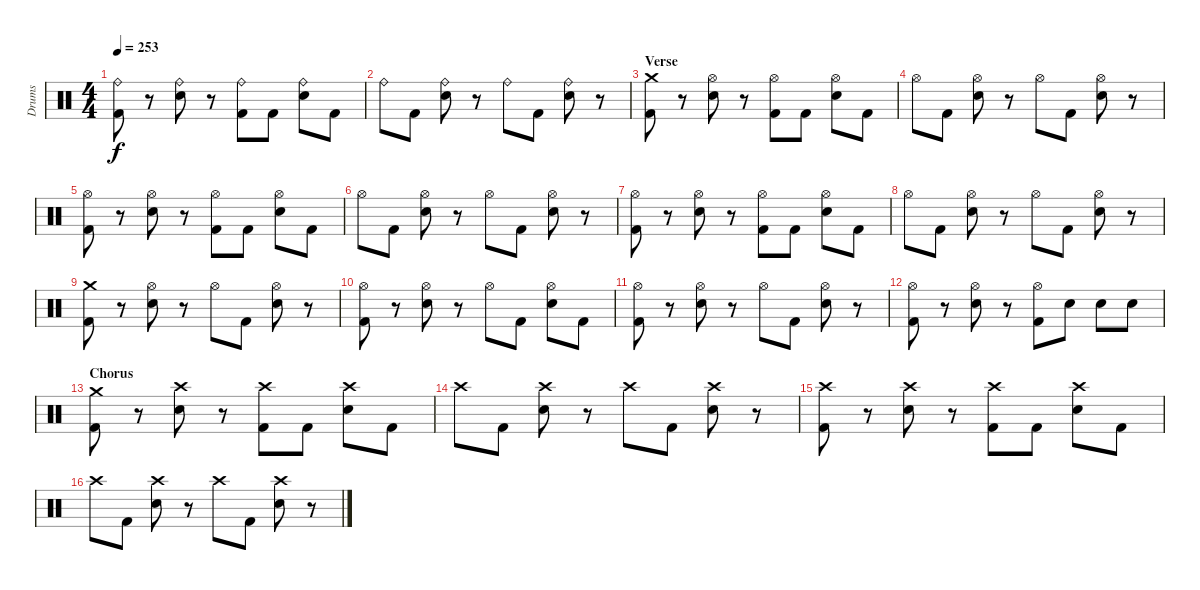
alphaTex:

\track ("Drums" "Drums") {instrument percussion}
\staff {score}
\articulation defaults
\ts (4 4)
\tempo 253
\clef neutral
\ks c
("Ride (bell)" "Kick (hit) 2").8{dy f} r.8 ("Ride (bell)" "Electric Snare (hit)").8 r.8 ("Ride (bell)" "Kick (hit) 2").8 "Kick (hit) 2".8 ("Ride (bell)" "Electric Snare (hit)").8 "Kick (hit) 2".8 |
"Ride (bell)".8 "Kick (hit) 2".8 ("Ride (bell)" "Electric Snare (hit)").8 r.8 "Ride (bell)".8 "Kick (hit) 2".8 ("Ride (bell)" "Electric Snare (hit)").8 r.8 |
\section ("" "Verse")
("Crash medium (hit)" "Kick (hit) 2").8 r.8 ("Hi-Hat (open)" "Electric Snare (hit)").8 r.8 ("Hi-Hat (open)" "Kick (hit) 2").8 "Kick (hit) 2".8 ("Hi-Hat (open)" "Electric Snare (hit)").8 "Kick (hit) 2".8 |
"Hi-Hat (open)".8 "Kick (hit) 2".8 ("Hi-Hat (open)" "Electric Snare (hit)").8 r.8 "Hi-Hat (open)".8 "Kick (hit) 2".8 ("Hi-Hat (open)" "Electric Snare (hit)").8 r.8 |
("Hi-Hat (open)" "Kick (hit) 2").8 r.8 ("Hi-Hat (open)" "Electric Snare (hit)").8 r.8 ("Hi-Hat (open)" "Kick (hit) 2").8 "Kick (hit) 2".8 ("Hi-Hat (open)" "Electric Snare (hit)").8 "Kick (hit) 2".8 |
"Hi-Hat (open)".8 "Kick (hit) 2".8 ("Hi-Hat (open)" "Electric Snare (hit)").8 r.8 "Hi-Hat (open)".8 "Kick (hit) 2".8 ("Hi-Hat (open)" "Electric Snare (hit)").8 r.8 |
("Hi-Hat (open)" "Kick (hit) 2").8 r.8 ("Hi-Hat (open)" "Electric Snare (hit)").8 r.8 ("Hi-Hat (open)" "Kick (hit) 2").8 "Kick (hit) 2".8 ("Hi-Hat (open)" "Electric Snare (hit)").8 "Kick (hit) 2".8 |
"Hi-Hat (open)".8 "Kick (hit) 2".8 ("Hi-Hat (open)" "Electric Snare (hit)").8 r.8 "Hi-Hat (open)".8 "Kick (hit) 2".8 ("Hi-Hat (open)" "Electric Snare (hit)").8 r.8 |
("Crash medium (hit)" "Kick (hit) 2").8 r.8 ("Hi-Hat (open)" "Electric Snare (hit)").8 r.8 "Hi-Hat (open)".8 "Kick (hit) 2".8 ("Hi-Hat (open)" "Electric Snare (hit)").8 r.8 |
("Hi-Hat (open)" "Kick (hit) 2").8 r.8 ("Hi-Hat (open)" "Electric Snare (hit)").8 r.8 "Hi-Hat (open)".8 "Kick (hit) 2".8 ("Hi-Hat (open)" "Electric Snare (hit)").8 "Kick (hit) 2".8 |
("Hi-Hat (open)" "Kick (hit) 2").8 r.8 ("Hi-Hat (open)" "Electric Snare (hit)").8 r.8 "Hi-Hat (open)".8 "Kick (hit) 2".8 ("Hi-Hat (open)" "Electric Snare (hit)").8 r.8 |
("Hi-Hat (open)" "Kick (hit) 2").8 r.8 ("Hi-Hat (open)" "Electric Snare (hit)").8 r.8 ("Hi-Hat (open)" "Kick (hit) 2").8 "Electric Snare (hit)".8 "Electric Snare (hit)".8 "Electric Snare (hit)".8 |
\section ("" "Chorus")
("Crash medium (hit)" "Kick (hit) 2").8 r.8 ("Crash high (hit)" "Electric Snare (hit)").8 r.8 ("Crash high (hit)" "Kick (hit) 2").8 "Kick (hit) 2".8 ("Crash high (hit)" "Electric Snare (hit)").8 "Kick (hit) 2".8 |
"Crash high (hit)".8 "Kick (hit) 2".8 ("Crash high (hit)" "Electric Snare (hit)").8 r.8 "Crash high (hit)".8 "Kick (hit) 2".8 ("Crash high (hit)" "Electric Snare (hit)").8 r.8 |
("Crash high (hit)" "Kick (hit) 2").8 r.8 ("Crash high (hit)" "Electric Snare (hit)").8 r.8 ("Crash high (hit)" "Kick (hit) 2").8 "Kick (hit) 2".8 ("Crash high (hit)" "Electric Snare (hit)").8 "Kick (hit) 2".8 |
"Crash high (hit)".8 "Kick (hit) 2".8 ("Crash high (hit)" "Electric Snare (hit)").8 r.8 "Crash high (hit)".8 "Kick (hit) 2".8 ("Crash high (hit)" "Electric Snare (hit)").8 r.8
